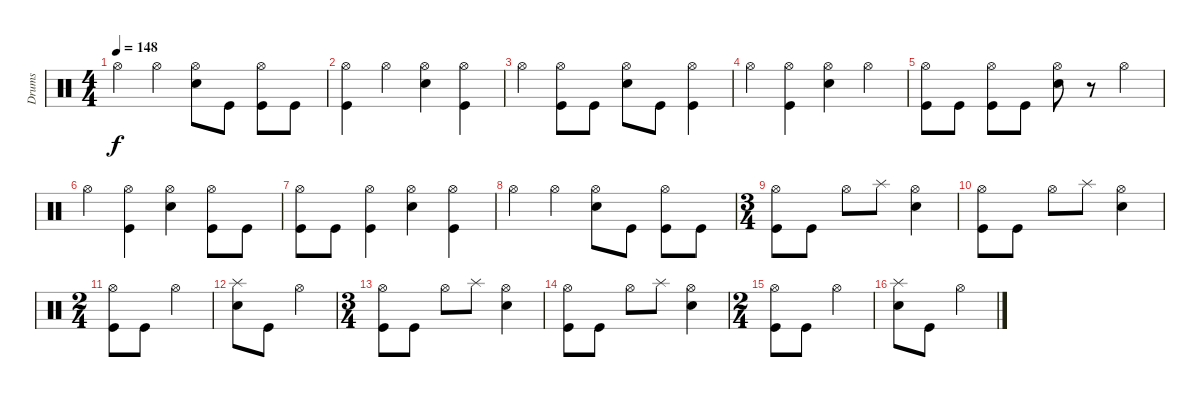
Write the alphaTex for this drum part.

\track ("Drums" "Drums") {instrument percussion}
\staff {score}
\articulation defaults
\ts (4 4)
\tempo 148
\clef neutral
\ks c "Hi-Hat (open)".4{dy f} "Hi-Hat (open)".4
("Hi-Hat (open)" "Snare (hit) 2").8 "Kick (hit)".8 ("Hi-Hat (open)" "Kick (hit)").8 "Kick (hit)".8 |
("Hi-Hat (open)" "Kick (hit)").4 "Hi-Hat (open)".4 ("Hi-Hat (open)" "Snare (hit) 2").4 ("Hi-Hat (open)" "Kick (hit)").4 |
"Hi-Hat (open)".4 ("Hi-Hat (open)" "Kick (hit)").8 "Kick (hit)".8 ("Hi-Hat (open)" "Snare (hit) 2").8 "Kick (hit)".8 ("Hi-Hat (open)" "Kick (hit)").4 |
"Hi-Hat (open)".4 ("Hi-Hat (open)" "Kick (hit)").4 ("Hi-Hat (open)" "Snare (hit) 2").4 "Hi-Hat (open)".4 |
("Hi-Hat (open)" "Kick (hit)").8 "Kick (hit)".8 ("Hi-Hat (open)" "Kick (hit)").8 "Kick (hit)".8 ("Hi-Hat (open)" "Snare (hit) 2").8 r.8 "Hi-Hat (open)".4 |
"Hi-Hat (open)".4 ("Hi-Hat (open)" "Kick (hit)").4 ("Hi-Hat (open)" "Snare (hit) 2").4 ("Hi-Hat (open)" "Kick (hit)").8 "Kick (hit)".8 |
("Hi-Hat (open)" "Kick (hit)").8 "Kick (hit)".8 ("Hi-Hat (open)" "Kick (hit)").4 ("Hi-Hat (open)" "Snare (hit) 2").4 ("Hi-Hat (open)" "Kick (hit)").4 |
"Hi-Hat (open)".4 "Hi-Hat (open)".4 ("Hi-Hat (open)" "Snare (hit) 2").8 "Kick (hit)".8 ("Hi-Hat (open)" "Kick (hit)").8 "Kick (hit)".8 |
\ts (3 4)
("Hi-Hat (open)" "Kick (hit)").8 "Kick (hit)".8 "Hi-Hat (open)".8 "Splash (hit)".8 ("Hi-Hat (open)" "Snare (hit) 2").4 |
("Hi-Hat (open)" "Kick (hit)").8 "Kick (hit)".8 "Hi-Hat (open)".8 "Splash (hit)".8 ("Hi-Hat (open)" "Snare (hit) 2").4 |
\ts (2 4)
("Hi-Hat (open)" "Kick (hit)").8 "Kick (hit)".8 "Hi-Hat (open)".4 |
("Splash (hit)" "Snare (hit) 2").8 "Kick (hit)".8 "Hi-Hat (open)".4 |
\ts (3 4)
("Hi-Hat (open)" "Kick (hit)").8 "Kick (hit)".8 "Hi-Hat (open)".8 "Splash (hit)".8 ("Hi-Hat (open)" "Snare (hit) 2").4 |
("Hi-Hat (open)" "Kick (hit)").8 "Kick (hit)".8 "Hi-Hat (open)".8 "Splash (hit)".8 ("Hi-Hat (open)" "Snare (hit) 2").4 |
\ts (2 4)
("Hi-Hat (open)" "Kick (hit)").8 "Kick (hit)".8 "Hi-Hat (open)".4 |
("Splash (hit)" "Snare (hit) 2").8 "Kick (hit)".8 "Hi-Hat (open)".4
